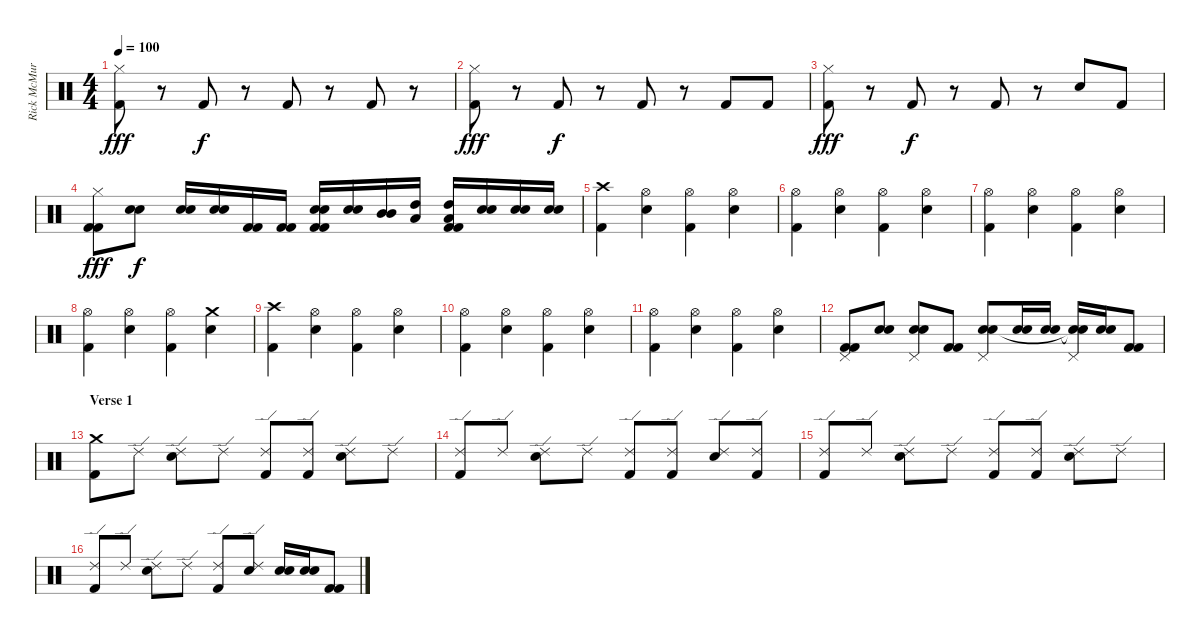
\track ("Rick McMurray" "Rick McMur") {instrument percussion}
\staff {score}
\articulation defaults
\ts (4 4)
\tempo 100
\clef neutral
\ks c
("Hi-Hat (closed)" "Kick (hit) 2").8{dy fff} r.8 "Kick (hit) 2".8{dy f} r.8 "Kick (hit) 2".8 r.8 "Kick (hit) 2".8 r.8 |
("Hi-Hat (closed)" "Kick (hit) 2").8{dy fff} r.8 "Kick (hit) 2".8{dy f} r.8 "Kick (hit) 2".8 r.8 "Kick (hit) 2".8 "Kick (hit) 2".8 |
("Hi-Hat (closed)" "Kick (hit) 2").8{dy fff} r.8 "Kick (hit) 2".8{dy f} r.8 "Kick (hit) 2".8 r.8 "Snare (hit) 2".8 "Kick (hit) 2".8 |
("Hi-Hat (closed)" "Kick (hit) 2" "Kick (hit) 2").8{dy fff} ("Electric Snare (hit)" "Snare (hit) 2").8{dy f} ("Electric Snare (hit)" "Snare (hit) 2").16 ("Electric Snare (hit)" "Snare (hit) 2").16 ("Kick (hit) 2" "Kick (hit) 2").16 ("Kick (hit) 2" "Kick (hit) 2").16 ("Snare (hit) 2" "Snare (hit) 2" "Kick (hit) 2" "Kick (hit) 2").16 ("Snare (hit) 2" "Snare (hit) 2").16 ("Mid Tom (hit)" "Mid Tom (hit)").16 ("Low Floor Tom (hit)" "High Tom (hit)").16 ("Low Floor Tom (hit)" "High Tom (hit)" "Kick (hit) 2" "Kick (hit) 2").16 ("Electric Snare (hit)" "Snare (hit) 2").16 ("Electric Snare (hit)" "Snare (hit) 2").16 ("Electric Snare (hit)" "Snare (hit) 2").16 |
("Crash high (hit)" "Kick (hit) 2").4 ("Hi-Hat (open)" "Snare (hit) 2").4 ("Hi-Hat (open)" "Kick (hit) 2").4 ("Hi-Hat (open)" "Snare (hit) 2").4 |
("Hi-Hat (open)" "Kick (hit) 2").4 ("Hi-Hat (open)" "Snare (hit) 2").4 ("Hi-Hat (open)" "Kick (hit) 2").4 ("Hi-Hat (open)" "Snare (hit) 2").4 |
("Hi-Hat (open)" "Kick (hit) 2").4 ("Hi-Hat (open)" "Snare (hit) 2").4 ("Hi-Hat (open)" "Kick (hit) 2").4 ("Hi-Hat (open)" "Snare (hit) 2").4 |
("Hi-Hat (open)" "Kick (hit) 2").4 ("Hi-Hat (open)" "Snare (hit) 2").4 ("Hi-Hat (open)" "Kick (hit) 2").4 ("Crash medium (hit)" "Snare (hit) 2").4 |
("Crash high (hit)" "Kick (hit) 2").4 ("Hi-Hat (open)" "Snare (hit) 2").4 ("Hi-Hat (open)" "Kick (hit) 2").4 ("Hi-Hat (open)" "Snare (hit) 2").4 |
("Hi-Hat (open)" "Kick (hit) 2").4 ("Hi-Hat (open)" "Snare (hit) 2").4 ("Hi-Hat (open)" "Kick (hit) 2").4 ("Hi-Hat (open)" "Snare (hit) 2").4 |
("Hi-Hat (open)" "Kick (hit) 2").4 ("Hi-Hat (open)" "Snare (hit) 2").4 ("Hi-Hat (open)" "Kick (hit) 2").4 ("Hi-Hat (open)" "Snare (hit) 2").4 |
("Pedal Hi-Hat (hit)" "Kick (hit) 2" "Kick (hit) 2").8 ("Snare (hit) 2" "Snare (hit) 2").8 ("Pedal Hi-Hat (hit)" "Snare (hit) 2" "Snare (hit) 2").8 ("Kick (hit) 2" "Kick (hit) 2").8 ("Pedal Hi-Hat (hit)" "Snare (hit) 2" "Snare (hit) 2").8 ("Snare (hit) 2" "Snare (hit) 2").16 ("Snare (hit) 2" "Snare (hit) 2").16 ("Pedal Hi-Hat (hit)" "Snare (hit) 2"{t} "Snare (hit)"{t}).16 ("Snare (hit) 2" "Snare (hit) 2").16 ("Kick (hit) 2" "Kick (hit) 2").8 |
\section ("" "Verse 1")
("Crash medium (hit)" "Kick (hit) 2").8 "Ride (edge) 2".8 ("Ride (edge) 2" "Snare (hit) 2").8 "Ride (edge) 2".8 ("Ride (edge) 2" "Kick (hit) 2").8 ("Ride (edge) 2" "Kick (hit) 2").8 ("Ride (edge) 2" "Snare (hit) 2").8 "Ride (edge) 2".8 |
("Ride (edge) 2" "Kick (hit) 2").8 "Ride (edge) 2".8 ("Ride (edge) 2" "Snare (hit) 2").8 "Ride (edge) 2".8 ("Ride (edge) 2" "Kick (hit) 2").8 ("Ride (edge) 2" "Kick (hit) 2").8 ("Ride (edge) 2" "Snare (hit) 2").8 ("Ride (edge) 2" "Kick (hit) 2").8 |
("Ride (edge) 2" "Kick (hit) 2").8 "Ride (edge) 2".8 ("Ride (edge) 2" "Snare (hit) 2").8 "Ride (edge) 2".8 ("Ride (edge) 2" "Kick (hit) 2").8 ("Ride (edge) 2" "Kick (hit) 2").8 ("Ride (edge) 2" "Snare (hit) 2").8 "Ride (edge) 2".8 |
("Ride (edge) 2" "Kick (hit) 2").8 "Ride (edge) 2".8 ("Ride (edge) 2" "Snare (hit) 2").8 "Ride (edge) 2".8 ("Ride (edge) 2" "Kick (hit) 2").8 ("Ride (edge) 2" "Snare (hit) 2").8 ("Snare (hit) 2" "Snare (hit) 2").16 ("Snare (hit) 2" "Snare (hit) 2").16 ("Kick (hit) 2" "Kick (hit) 2").8
